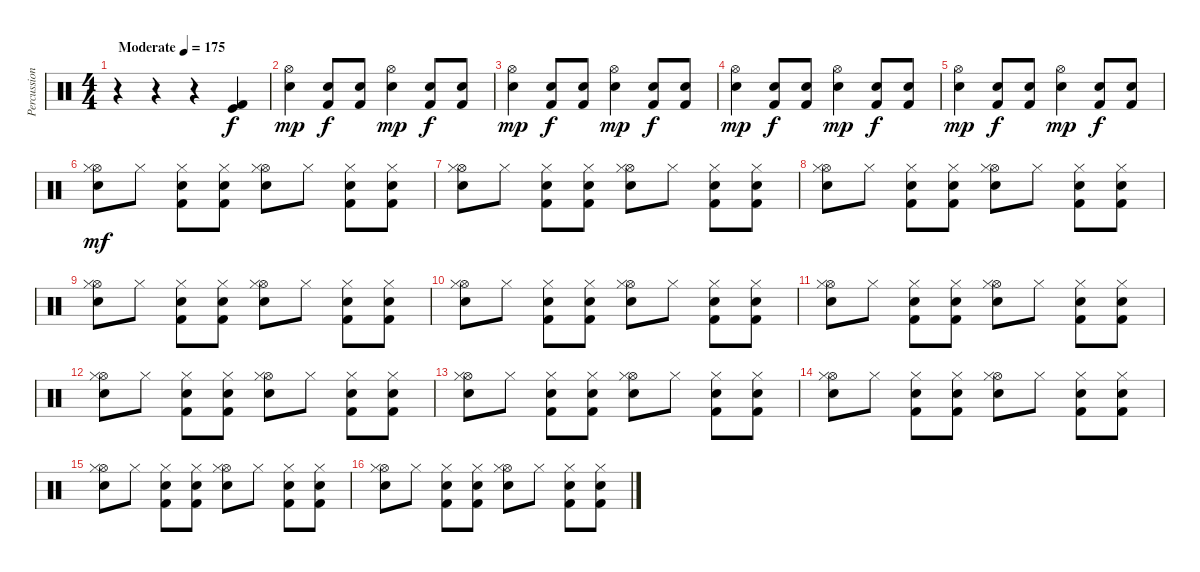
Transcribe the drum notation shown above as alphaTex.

\track ("Percussions" "Percussion") {instrument percussion}
\staff {score}
\articulation defaults
\ts (4 4)
\tempo (175 "Moderate")
\clef neutral
\ks c
r.4{dy f} r.4 r.4 ("Kick (hit) 2" "Kick (hit)").4 |
("Snare (hit) 2" "Hi-Hat (open)").4{dy mp} ("Kick (hit) 2" "Snare (hit) 2").8{dy f} ("Kick (hit) 2" "Snare (hit) 2").8 ("Snare (hit) 2" "Hi-Hat (open)").4{dy mp} ("Kick (hit) 2" "Snare (hit) 2").8{dy f} ("Kick (hit) 2" "Snare (hit) 2").8 |
("Snare (hit) 2" "Hi-Hat (open)").4{dy mp} ("Kick (hit) 2" "Snare (hit) 2").8{dy f} ("Kick (hit) 2" "Snare (hit) 2").8 ("Snare (hit) 2" "Hi-Hat (open)").4{dy mp} ("Kick (hit) 2" "Snare (hit) 2").8{dy f} ("Kick (hit) 2" "Snare (hit) 2").8 |
("Snare (hit) 2" "Hi-Hat (open)").4{dy mp} ("Kick (hit) 2" "Snare (hit) 2").8{dy f} ("Kick (hit) 2" "Snare (hit) 2").8 ("Snare (hit) 2" "Hi-Hat (open)").4{dy mp} ("Kick (hit) 2" "Snare (hit) 2").8{dy f} ("Kick (hit) 2" "Snare (hit) 2").8 |
("Snare (hit) 2" "Hi-Hat (open)").4{dy mp} ("Kick (hit) 2" "Snare (hit) 2").8{dy f} ("Kick (hit) 2" "Snare (hit) 2").8 ("Snare (hit) 2" "Hi-Hat (open)").4{dy mp} ("Kick (hit) 2" "Snare (hit) 2").8{dy f} ("Kick (hit) 2" "Snare (hit) 2").8 |
("Snare (hit) 2" "Hi-Hat (open)" "Hi-Hat (closed)").8{dy mf} "Hi-Hat (closed)".8 ("Kick (hit) 2" "Snare (hit) 2" "Hi-Hat (closed)").8 ("Kick (hit) 2" "Snare (hit) 2" "Hi-Hat (closed)").8 ("Snare (hit) 2" "Hi-Hat (open)" "Hi-Hat (closed)").8 "Hi-Hat (closed)".8 ("Kick (hit) 2" "Snare (hit) 2" "Hi-Hat (closed)").8 ("Kick (hit) 2" "Snare (hit) 2" "Hi-Hat (closed)").8 |
("Snare (hit) 2" "Hi-Hat (open)" "Hi-Hat (closed)").8 "Hi-Hat (closed)".8 ("Kick (hit) 2" "Snare (hit) 2" "Hi-Hat (closed)").8 ("Kick (hit) 2" "Snare (hit) 2" "Hi-Hat (closed)").8 ("Snare (hit) 2" "Hi-Hat (open)" "Hi-Hat (closed)").8 "Hi-Hat (closed)".8 ("Kick (hit) 2" "Snare (hit) 2" "Hi-Hat (closed)").8 ("Kick (hit) 2" "Snare (hit) 2" "Hi-Hat (closed)").8 |
("Snare (hit) 2" "Hi-Hat (open)" "Hi-Hat (closed)").8 "Hi-Hat (closed)".8 ("Kick (hit) 2" "Snare (hit) 2" "Hi-Hat (closed)").8 ("Kick (hit) 2" "Snare (hit) 2" "Hi-Hat (closed)").8 ("Snare (hit) 2" "Hi-Hat (open)" "Hi-Hat (closed)").8 "Hi-Hat (closed)".8 ("Kick (hit) 2" "Snare (hit) 2" "Hi-Hat (closed)").8 ("Kick (hit) 2" "Snare (hit) 2" "Hi-Hat (closed)").8 |
("Snare (hit) 2" "Hi-Hat (open)" "Hi-Hat (closed)").8 "Hi-Hat (closed)".8 ("Kick (hit) 2" "Snare (hit) 2" "Hi-Hat (closed)").8 ("Kick (hit) 2" "Snare (hit) 2" "Hi-Hat (closed)").8 ("Snare (hit) 2" "Hi-Hat (open)" "Hi-Hat (closed)").8 "Hi-Hat (closed)".8 ("Kick (hit) 2" "Snare (hit) 2" "Hi-Hat (closed)").8 ("Kick (hit) 2" "Snare (hit) 2" "Hi-Hat (closed)").8 |
("Snare (hit) 2" "Hi-Hat (open)" "Hi-Hat (closed)").8 "Hi-Hat (closed)".8 ("Kick (hit) 2" "Snare (hit) 2" "Hi-Hat (closed)").8 ("Kick (hit) 2" "Snare (hit) 2" "Hi-Hat (closed)").8 ("Snare (hit) 2" "Hi-Hat (open)" "Hi-Hat (closed)").8 "Hi-Hat (closed)".8 ("Kick (hit) 2" "Snare (hit) 2" "Hi-Hat (closed)").8 ("Kick (hit) 2" "Snare (hit) 2" "Hi-Hat (closed)").8 |
("Snare (hit) 2" "Hi-Hat (open)" "Hi-Hat (closed)").8 "Hi-Hat (closed)".8 ("Kick (hit) 2" "Snare (hit) 2" "Hi-Hat (closed)").8 ("Kick (hit) 2" "Snare (hit) 2" "Hi-Hat (closed)").8 ("Snare (hit) 2" "Hi-Hat (open)" "Hi-Hat (closed)").8 "Hi-Hat (closed)".8 ("Kick (hit) 2" "Snare (hit) 2" "Hi-Hat (closed)").8 ("Kick (hit) 2" "Snare (hit) 2" "Hi-Hat (closed)").8 |
("Snare (hit) 2" "Hi-Hat (open)" "Hi-Hat (closed)").8 "Hi-Hat (closed)".8 ("Kick (hit) 2" "Snare (hit) 2" "Hi-Hat (closed)").8 ("Kick (hit) 2" "Snare (hit) 2" "Hi-Hat (closed)").8 ("Snare (hit) 2" "Hi-Hat (open)" "Hi-Hat (closed)").8 "Hi-Hat (closed)".8 ("Kick (hit) 2" "Snare (hit) 2" "Hi-Hat (closed)").8 ("Kick (hit) 2" "Snare (hit) 2" "Hi-Hat (closed)").8 |
("Snare (hit) 2" "Hi-Hat (open)" "Hi-Hat (closed)").8 "Hi-Hat (closed)".8 ("Kick (hit) 2" "Snare (hit) 2" "Hi-Hat (closed)").8 ("Kick (hit) 2" "Snare (hit) 2" "Hi-Hat (closed)").8 ("Snare (hit) 2" "Hi-Hat (open)" "Hi-Hat (closed)").8 "Hi-Hat (closed)".8 ("Kick (hit) 2" "Snare (hit) 2" "Hi-Hat (closed)").8 ("Kick (hit) 2" "Snare (hit) 2" "Hi-Hat (closed)").8 |
("Snare (hit) 2" "Hi-Hat (open)" "Hi-Hat (closed)").8 "Hi-Hat (closed)".8 ("Kick (hit) 2" "Snare (hit) 2" "Hi-Hat (closed)").8 ("Kick (hit) 2" "Snare (hit) 2" "Hi-Hat (closed)").8 ("Snare (hit) 2" "Hi-Hat (open)" "Hi-Hat (closed)").8 "Hi-Hat (closed)".8 ("Kick (hit) 2" "Snare (hit) 2" "Hi-Hat (closed)").8 ("Kick (hit) 2" "Snare (hit) 2" "Hi-Hat (closed)").8 |
("Snare (hit) 2" "Hi-Hat (open)" "Hi-Hat (closed)").8 "Hi-Hat (closed)".8 ("Kick (hit) 2" "Snare (hit) 2" "Hi-Hat (closed)").8 ("Kick (hit) 2" "Snare (hit) 2" "Hi-Hat (closed)").8 ("Snare (hit) 2" "Hi-Hat (open)" "Hi-Hat (closed)").8 "Hi-Hat (closed)".8 ("Kick (hit) 2" "Snare (hit) 2" "Hi-Hat (closed)").8 ("Kick (hit) 2" "Snare (hit) 2" "Hi-Hat (closed)").8 |
("Snare (hit) 2" "Hi-Hat (open)" "Hi-Hat (closed)").8 "Hi-Hat (closed)".8 ("Kick (hit) 2" "Snare (hit) 2" "Hi-Hat (closed)").8 ("Kick (hit) 2" "Snare (hit) 2" "Hi-Hat (closed)").8 ("Snare (hit) 2" "Hi-Hat (open)" "Hi-Hat (closed)").8 "Hi-Hat (closed)".8 ("Kick (hit) 2" "Snare (hit) 2" "Hi-Hat (closed)").8 ("Kick (hit) 2" "Snare (hit) 2" "Hi-Hat (closed)").8
